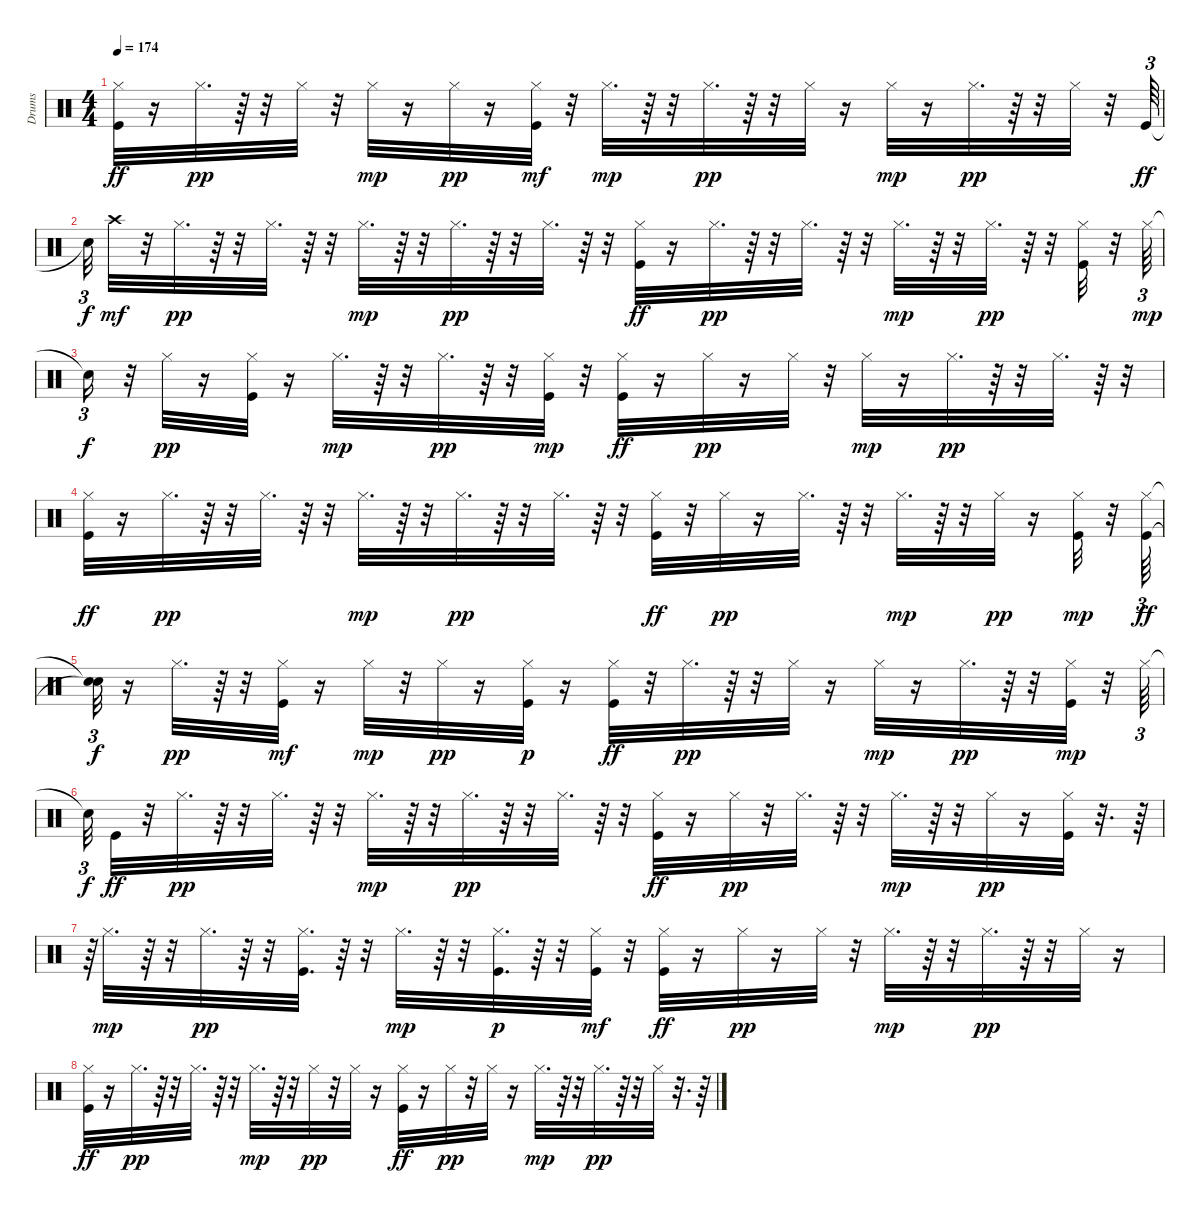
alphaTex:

\track ("Drums" "Drums") {instrument percussion}
\staff {score}
\articulation defaults
\ts (4 4)
\tempo 174
\clef neutral
\ks c
("Hi-Hat (closed)" "Kick (hit)").32{dy ff} r.16 "Hi-Hat (closed)".32{d dy pp} r.64 r.32 "Hi-Hat (closed)".32 r.32 "Hi-Hat (closed)".32{dy mp} r.16 "Hi-Hat (closed)".32{dy pp} r.16 ("Hi-Hat (closed)" "Kick (hit)").32{dy mf} r.32 "Hi-Hat (closed)".32{d dy mp} r.64 r.32 "Hi-Hat (closed)".32{d dy pp} r.64 r.32 "Hi-Hat (closed)".32 r.16 "Hi-Hat (closed)".32{dy mp} r.16 "Hi-Hat (closed)".32{d dy pp} r.64 r.32 "Hi-Hat (closed)".32 r.32 "Kick (hit)".64{tu (3 2) dy ff} |
"Snare (hit)"{t}.32{tu (3 2) dy f} "Crash high (hit)".32{dy mf} r.32 "Hi-Hat (closed)".32{d dy pp} r.64 r.32 "Hi-Hat (closed)".32{d} r.64 r.32 "Hi-Hat (closed)".32{d dy mp} r.64 r.32 "Hi-Hat (closed)".32{d dy pp} r.64 r.32 "Hi-Hat (closed)".32{d} r.64 r.32 ("Hi-Hat (closed)" "Kick (hit)").32{dy ff} r.16 "Hi-Hat (closed)".32{d dy pp} r.64 r.32 "Hi-Hat (closed)".32{d} r.64 r.32 "Hi-Hat (closed)".32{d dy mp} r.64 r.32 "Hi-Hat (closed)".32{d dy pp} r.64 r.32 ("Hi-Hat (closed)" "Kick (hit)").32 r.32 "Hi-Hat (closed)".64{tu (3 2) dy mp} |
"Snare (hit)"{t}.16{tu (3 2) dy f} r.32 "Hi-Hat (closed)".32{dy pp} r.16 ("Hi-Hat (closed)" "Kick (hit)").32 r.16 "Hi-Hat (closed)".32{d dy mp} r.64 r.32 "Hi-Hat (closed)".32{d dy pp} r.64 r.32 ("Hi-Hat (closed)" "Kick (hit)").32{dy mp} r.32 ("Hi-Hat (closed)" "Kick (hit)").32{dy ff} r.16 "Hi-Hat (closed)".32{dy pp} r.16 "Hi-Hat (closed)".32 r.32 "Hi-Hat (closed)".32{dy mp} r.16 "Hi-Hat (closed)".32{d dy pp} r.64 r.32 "Hi-Hat (closed)".32{d} r.64 r.32 |
("Hi-Hat (closed)" "Kick (hit)").32{dy ff} r.16 "Hi-Hat (closed)".32{d dy pp} r.64 r.32 "Hi-Hat (closed)".32{d} r.64 r.32 "Hi-Hat (closed)".32{d dy mp} r.64 r.32 "Hi-Hat (closed)".32{d dy pp} r.64 r.32 "Hi-Hat (closed)".32{d} r.64 r.32 ("Hi-Hat (closed)" "Kick (hit)").32{dy ff} r.32 "Hi-Hat (closed)".32{dy pp} r.16 "Hi-Hat (closed)".32{d} r.64 r.32 "Hi-Hat (closed)".32{d dy mp} r.64 r.32 "Hi-Hat (closed)".32{dy pp} r.16 ("Hi-Hat (closed)" "Kick (hit)").32{dy mp} r.32 ("Hi-Hat (closed)" "Kick (hit)").64{tu (3 2) dy ff} |
("Snare (hit)"{t} "Snare (hit)"{t}).32{tu (3 2) dy f} r.16 "Hi-Hat (closed)".32{d dy pp} r.64 r.32 ("Hi-Hat (closed)" "Kick (hit)").32{dy mf} r.16 "Hi-Hat (closed)".32{dy mp} r.32 "Hi-Hat (closed)".32{dy pp} r.16 ("Hi-Hat (closed)" "Kick (hit)").32{dy p} r.16 ("Hi-Hat (closed)" "Kick (hit)").32{dy ff} r.32 "Hi-Hat (closed)".32{d dy pp} r.64 r.32 "Hi-Hat (closed)".32 r.16 "Hi-Hat (closed)".32{dy mp} r.16 "Hi-Hat (closed)".32{d dy pp} r.64 r.32 ("Hi-Hat (closed)" "Kick (hit)").32{dy mp} r.32 "Hi-Hat (closed)".64{tu (3 2)} |
"Snare (hit)"{t}.32{tu (3 2) dy f} "Kick (hit)".32{dy ff} r.32 "Hi-Hat (closed)".32{d dy pp} r.64 r.32 "Hi-Hat (closed)".32{d} r.64 r.32 "Hi-Hat (closed)".32{d dy mp} r.64 r.32 "Hi-Hat (closed)".32{d dy pp} r.64 r.32 "Hi-Hat (closed)".32{d} r.64 r.32 ("Hi-Hat (closed)" "Kick (hit)").32{dy ff} r.16 "Hi-Hat (closed)".32{dy pp} r.32 "Hi-Hat (closed)".32{d} r.64 r.32 "Hi-Hat (closed)".32{d dy mp} r.64 r.32 "Hi-Hat (closed)".32{dy pp} r.16 ("Hi-Hat (closed)" "Kick (hit)").32 r.32{d} r.64 |
r.64{tu (3 2)} "Hi-Hat (closed)".32{d dy mp} r.64 r.32 "Hi-Hat (closed)".32{d dy pp} r.64 r.32 ("Hi-Hat (closed)" "Kick (hit)").32{d} r.64 r.32 "Hi-Hat (closed)".32{d dy mp} r.64 r.32 ("Hi-Hat (closed)" "Kick (hit)").32{d dy p} r.64 r.32 ("Hi-Hat (closed)" "Kick (hit)").32{dy mf} r.32 ("Hi-Hat (closed)" "Kick (hit)").32{dy ff} r.16 "Hi-Hat (closed)".32{dy pp} r.16 "Hi-Hat (closed)".32 r.32 "Hi-Hat (closed)".32{d dy mp} r.64 r.32 "Hi-Hat (closed)".32{d dy pp} r.64 r.32 "Hi-Hat (closed)".32 r.16 |
("Hi-Hat (closed)" "Kick (hit)").32{dy ff} r.16 "Hi-Hat (closed)".32{d dy pp} r.64 r.32 "Hi-Hat (closed)".32{d} r.64 r.32 "Hi-Hat (closed)".32{d dy mp} r.64 r.32 "Hi-Hat (closed)".32{dy pp} r.32 "Hi-Hat (closed)".32 r.16 ("Hi-Hat (closed)" "Kick (hit)").32{dy ff} r.16 "Hi-Hat (closed)".32{dy pp} r.32 "Hi-Hat (closed)".32 r.16 "Hi-Hat (closed)".32{d dy mp} r.64 r.32 "Hi-Hat (closed)".32{d dy pp} r.64 r.32 "Hi-Hat (closed)".32 r.32{d} r.64
